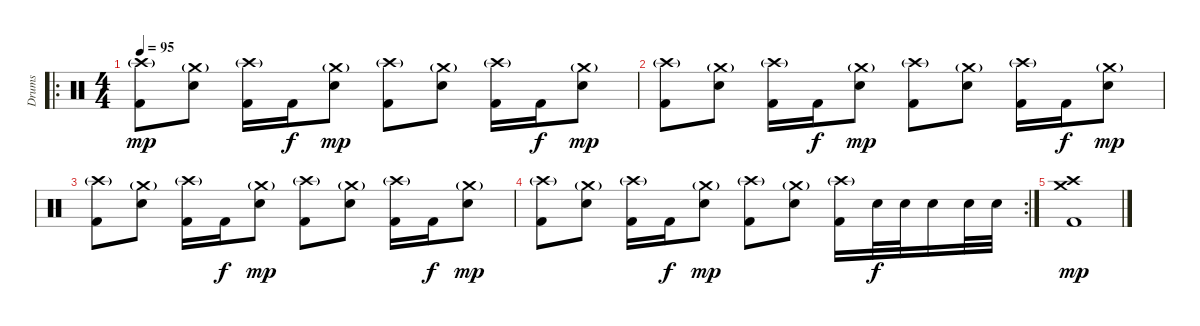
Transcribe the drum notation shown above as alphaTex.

\track ("Drums" "Drums") {instrument percussion}
\staff {score}
\articulation defaults
\ro
\ts (4 4)
\tempo 95
\clef neutral
\ks c
("Crash high (hit)"{g} "Kick (hit) 2").8{dy mp} ("Electric Snare (hit)" "Crash medium (hit)"{g}).8 ("Kick (hit) 2" "Crash high (hit)"{g}).16 "Kick (hit) 2".16{dy f} ("Electric Snare (hit)" "Crash medium (hit)"{g}).8{dy mp} ("Crash high (hit)"{g} "Kick (hit) 2").8 ("Electric Snare (hit)" "Crash medium (hit)"{g}).8 ("Kick (hit) 2" "Crash high (hit)"{g}).16 "Kick (hit) 2".16{dy f} ("Electric Snare (hit)" "Crash medium (hit)"{g}).8{dy mp} |
("Crash high (hit)"{g} "Kick (hit) 2").8 ("Electric Snare (hit)" "Crash medium (hit)"{g}).8 ("Kick (hit) 2" "Crash high (hit)"{g}).16 "Kick (hit) 2".16{dy f} ("Electric Snare (hit)" "Crash medium (hit)"{g}).8{dy mp} ("Crash high (hit)"{g} "Kick (hit) 2").8 ("Electric Snare (hit)" "Crash medium (hit)"{g}).8 ("Kick (hit) 2" "Crash high (hit)"{g}).16 "Kick (hit) 2".16{dy f} ("Electric Snare (hit)" "Crash medium (hit)"{g}).8{dy mp} |
("Crash high (hit)"{g} "Kick (hit) 2").8 ("Electric Snare (hit)" "Crash medium (hit)"{g}).8 ("Kick (hit) 2" "Crash high (hit)"{g}).16 "Kick (hit) 2".16{dy f} ("Electric Snare (hit)" "Crash medium (hit)"{g}).8{dy mp} ("Crash high (hit)"{g} "Kick (hit) 2").8 ("Electric Snare (hit)" "Crash medium (hit)"{g}).8 ("Kick (hit) 2" "Crash high (hit)"{g}).16 "Kick (hit) 2".16{dy f} ("Electric Snare (hit)" "Crash medium (hit)"{g}).8{dy mp} |
\rc 2
("Crash high (hit)"{g} "Kick (hit) 2").8 ("Electric Snare (hit)" "Crash medium (hit)"{g}).8 ("Kick (hit) 2" "Crash high (hit)"{g}).16 "Kick (hit) 2".16{dy f} ("Electric Snare (hit)" "Crash medium (hit)"{g}).8{dy mp} ("Crash high (hit)"{g} "Kick (hit) 2").8 ("Electric Snare (hit)" "Crash medium (hit)"{g}).8 ("Kick (hit) 2" "Crash high (hit)"{g}).16 "Electric Snare (hit)".32{dy f} "Electric Snare (hit)".32 "Electric Snare (hit)".16 "Electric Snare (hit)".32 "Electric Snare (hit)".32 |
("Kick (hit) 2" "Crash high (hit)" "Crash medium (hit)").1{dy mp}
